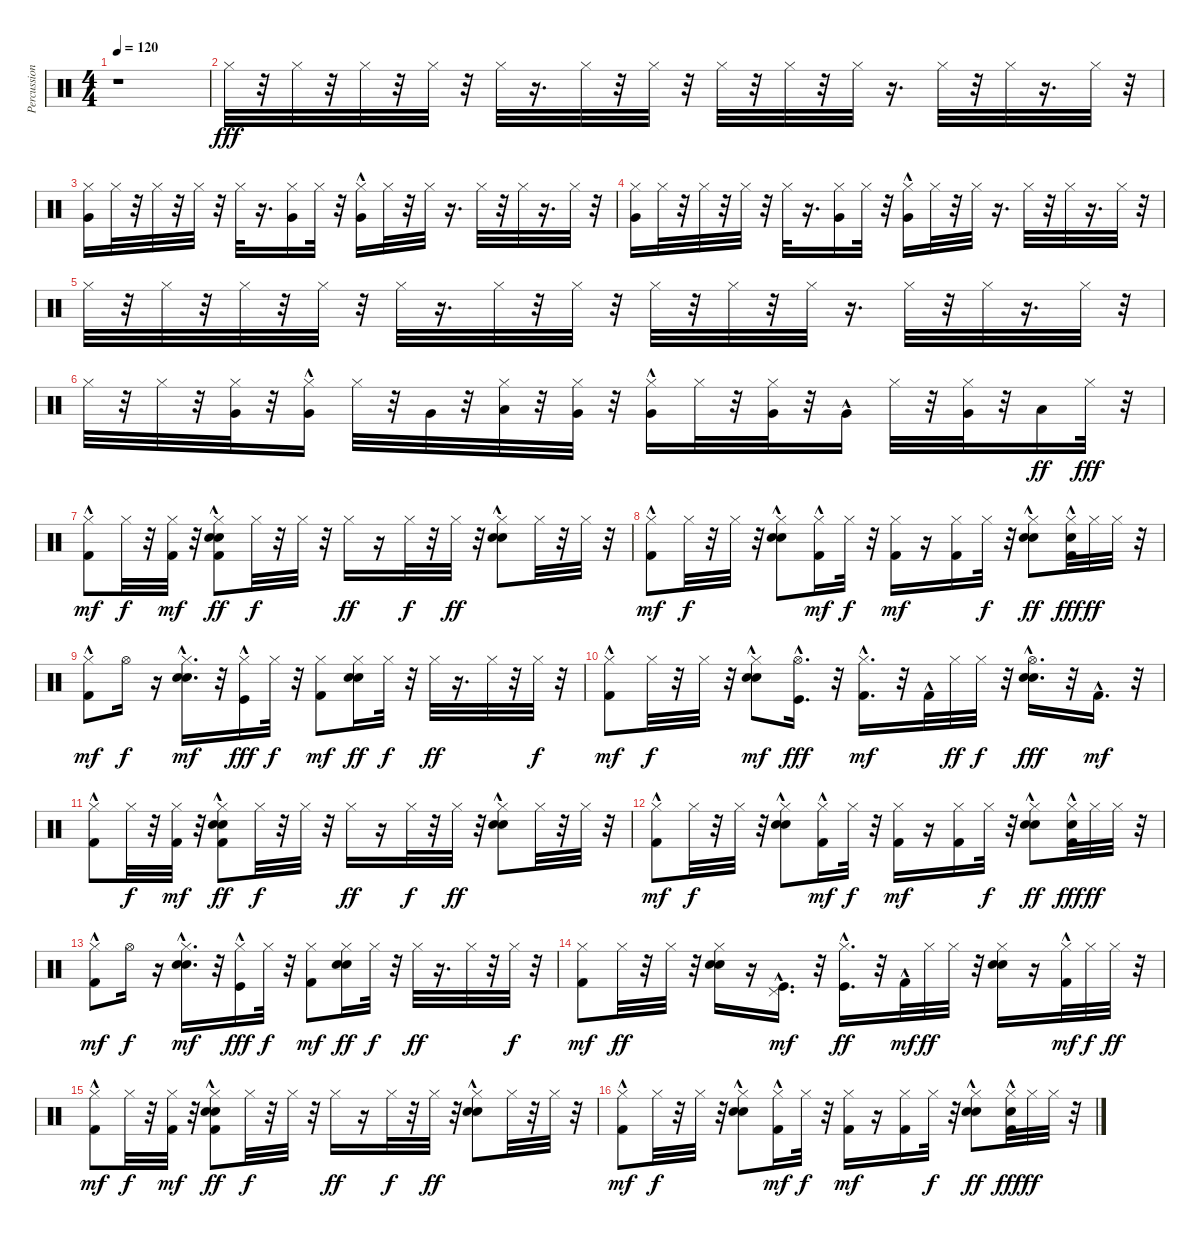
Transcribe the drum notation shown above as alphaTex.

\track ("Percussion" "Percussion") {instrument percussion}
\staff {score}
\articulation defaults
\ts (4 4)
\tempo 120
\clef neutral
\ks c
r.1{dy fff} |
"Hi-Hat (closed)".32 r.32 "Hi-Hat (closed)".32 r.32 "Hi-Hat (closed)".32 r.32 "Hi-Hat (closed)".32 r.32 "Hi-Hat (closed)".32 r.16{d} "Hi-Hat (closed)".32 r.32 "Hi-Hat (closed)".32 r.32 "Hi-Hat (closed)".32 r.32 "Hi-Hat (closed)".32 r.32 "Hi-Hat (closed)".32 r.16{d} "Hi-Hat (closed)".32 r.32 "Hi-Hat (closed)".32 r.16{d} "Hi-Hat (closed)".32 r.32 |
("Very Low Tom (hit)" "Hi-Hat (closed)").16 "Hi-Hat (closed)".32 r.32 "Hi-Hat (closed)".32 r.32 "Hi-Hat (closed)".32 r.32 "Hi-Hat (closed)".32 r.16{d} ("Hi-Hat (closed)" "Very Low Tom (hit)").16 "Hi-Hat (closed)".32 r.32 ("Very Low Tom (hit)"{hac} "Hi-Hat (closed)").16 "Hi-Hat (closed)".32 r.32 "Hi-Hat (closed)".32 r.16{d} "Hi-Hat (closed)".32 r.32 "Hi-Hat (closed)".32 r.16{d} "Hi-Hat (closed)".32 r.32 |
("Very Low Tom (hit)" "Hi-Hat (closed)").16 "Hi-Hat (closed)".32 r.32 "Hi-Hat (closed)".32 r.32 "Hi-Hat (closed)".32 r.32 "Hi-Hat (closed)".32 r.16{d} ("Hi-Hat (closed)" "Very Low Tom (hit)").16 "Hi-Hat (closed)".32 r.32 ("Very Low Tom (hit)"{hac} "Hi-Hat (closed)").16 "Hi-Hat (closed)".32 r.32 "Hi-Hat (closed)".32 r.16{d} "Hi-Hat (closed)".32 r.32 "Hi-Hat (closed)".32 r.16{d} "Hi-Hat (closed)".32 r.32 |
"Hi-Hat (closed)".32 r.32 "Hi-Hat (closed)".32 r.32 "Hi-Hat (closed)".32 r.32 "Hi-Hat (closed)".32 r.32 "Hi-Hat (closed)".32 r.16{d} "Hi-Hat (closed)".32 r.32 "Hi-Hat (closed)".32 r.32 "Hi-Hat (closed)".32 r.32 "Hi-Hat (closed)".32 r.32 "Hi-Hat (closed)".32 r.16{d} "Hi-Hat (closed)".32 r.32 "Hi-Hat (closed)".32 r.16{d} "Hi-Hat (closed)".32 r.32 |
"Hi-Hat (closed)".32 r.32 "Hi-Hat (closed)".32 r.32 ("Hi-Hat (closed)" "Very Low Tom (hit)").32 r.32 ("Very Low Tom (hit)"{hac} "Hi-Hat (closed)").16 "Hi-Hat (closed)".32 r.32 "Very Low Tom (hit)".32 r.32 ("Low Floor Tom (hit)" "Hi-Hat (closed)").32 r.32 ("Very Low Tom (hit)" "Hi-Hat (closed)").32 r.32 ("Very Low Tom (hit)"{hac} "Hi-Hat (closed)").16 "Hi-Hat (closed)".32 r.32 ("Very Low Tom (hit)" "Hi-Hat (closed)").32 r.32 "Very Low Tom (hit)"{hac}.16 "Hi-Hat (closed)".32 r.32 ("Very Low Tom (hit)" "Hi-Hat (closed)").32 r.32 "Low Floor Tom (hit)".16{dy ff} "Hi-Hat (closed)".32{dy fff} r.32 |
("Hi-Hat (closed)"{hac} "Kick (hit) 2").8{dy mf} "Hi-Hat (closed)".32{dy f} r.32 ("Kick (hit) 2" "Hi-Hat (closed)").32{dy mf} r.32 ("Kick (hit) 2"{hac} "Hi-Hat (closed)"{hac} "Hand Clap (hit)"{hac} "Snare (hit) 2"{hac}).8{dy ff} "Hi-Hat (closed)".32{dy f} r.32 "Hi-Hat (closed)".32 r.32 "Hi-Hat (closed)".16{dy ff} r.16 "Hi-Hat (closed)".32{dy f} r.32 "Hi-Hat (closed)".32{dy ff} r.32 ("Hi-Hat (closed)" "Hand Clap (hit)"{hac} "Snare (hit) 2"{hac}).8 "Hi-Hat (closed)".32 r.32 "Hi-Hat (closed)".32 r.32 |
("Hi-Hat (closed)"{hac} "Kick (hit) 2").8{dy mf} "Hi-Hat (closed)".32{dy f} r.32 "Hi-Hat (closed)".32 r.32 ("Hi-Hat (closed)" "Hand Clap (hit)"{hac} "Snare (hit) 2"{hac}).8 ("Kick (hit) 2"{hac} "Hi-Hat (closed)").16{dy mf} "Hi-Hat (closed)".32{dy f} r.32 ("Hi-Hat (closed)" "Kick (hit) 2").16{dy mf} r.16 ("Kick (hit) 2" "Hi-Hat (closed)").16 "Hi-Hat (closed)".32{dy f} r.32 ("Hi-Hat (closed)" "Hand Clap (hit)"{hac} "Snare (hit) 2"{hac}).8{dy ff} ("Hi-Hat (closed)" "Kick (hit) 2"{hac} "Electric Snare (hit)").32{dy fff} "Hi-Hat (closed)".32{dy ff} "Hi-Hat (closed)".32 r.32 |
("Kick (hit) 2" "Hi-Hat (closed)"{hac}).8{dy mf} "Hi-Hat (open)".16{dy f} r.16 ("Hand Clap (hit)"{hac} "Snare (hit) 2"{hac} "Hi-Hat (closed)").16{d dy mf} r.32 ("Kick (hit)"{hac} "Hi-Hat (closed)").16{dy fff} "Hi-Hat (closed)".32{dy f} r.32 ("Hi-Hat (closed)" "Kick (hit) 2").8{dy mf} ("Hand Clap (hit)" "Snare (hit) 2" "Hi-Hat (closed)").16{dy ff} "Hi-Hat (closed)".32{dy f} r.32 "Hi-Hat (closed)".32{dy ff} r.16{d} "Hi-Hat (closed)".32 r.32 "Hi-Hat (closed)".32{dy f} r.32 |
("Hi-Hat (closed)"{hac} "Kick (hit) 2").8{dy mf} "Hi-Hat (closed)".32{dy f} r.32 "Hi-Hat (closed)".32 r.32 ("Hi-Hat (closed)" "Hand Clap (hit)"{hac} "Snare (hit) 2"{hac}).8{dy mf} ("Hi-Hat (open)" "Kick (hit)"{hac}).16{d dy fff} r.32 ("Kick (hit) 2"{hac} "Hi-Hat (closed)").16{d dy mf} r.32 "Kick (hit) 2"{hac}.32 "Hi-Hat (closed)".32{dy ff} "Hi-Hat (closed)".32{dy f} r.32 ("Hand Clap (hit)"{hac} "Snare (hit) 2"{hac} "Hi-Hat (open)"{hac}).16{d dy fff} r.32 "Kick (hit) 2"{hac}.16{d dy mf} r.32 |
("Hi-Hat (closed)"{hac} "Kick (hit) 2").8 "Hi-Hat (closed)".32{dy f} r.32 ("Kick (hit) 2" "Hi-Hat (closed)").32{dy mf} r.32 ("Kick (hit) 2"{hac} "Hi-Hat (closed)"{hac} "Hand Clap (hit)"{hac} "Snare (hit) 2"{hac}).8{dy ff} "Hi-Hat (closed)".32{dy f} r.32 "Hi-Hat (closed)".32 r.32 "Hi-Hat (closed)".16{dy ff} r.16 "Hi-Hat (closed)".32{dy f} r.32 "Hi-Hat (closed)".32{dy ff} r.32 ("Hi-Hat (closed)" "Hand Clap (hit)"{hac} "Snare (hit) 2"{hac}).8 "Hi-Hat (closed)".32 r.32 "Hi-Hat (closed)".32 r.32 |
("Hi-Hat (closed)"{hac} "Kick (hit) 2").8{dy mf} "Hi-Hat (closed)".32{dy f} r.32 "Hi-Hat (closed)".32 r.32 ("Hi-Hat (closed)" "Hand Clap (hit)"{hac} "Snare (hit) 2"{hac}).8 ("Kick (hit) 2"{hac} "Hi-Hat (closed)").16{dy mf} "Hi-Hat (closed)".32{dy f} r.32 ("Hi-Hat (closed)" "Kick (hit) 2").16{dy mf} r.16 ("Kick (hit) 2" "Hi-Hat (closed)").16 "Hi-Hat (closed)".32{dy f} r.32 ("Hi-Hat (closed)" "Hand Clap (hit)"{hac} "Snare (hit) 2"{hac}).8{dy ff} ("Hi-Hat (closed)" "Kick (hit) 2"{hac} "Electric Snare (hit)").32{dy fff} "Hi-Hat (closed)".32{dy ff} "Hi-Hat (closed)".32 r.32 |
("Kick (hit) 2" "Hi-Hat (closed)"{hac}).8{dy mf} "Hi-Hat (open)".16{dy f} r.16 ("Hand Clap (hit)"{hac} "Snare (hit) 2"{hac} "Hi-Hat (closed)").16{d dy mf} r.32 ("Kick (hit)"{hac} "Hi-Hat (closed)").16{dy fff} "Hi-Hat (closed)".32{dy f} r.32 ("Hi-Hat (closed)" "Kick (hit) 2").8{dy mf} ("Hand Clap (hit)" "Snare (hit) 2" "Hi-Hat (closed)").16{dy ff} "Hi-Hat (closed)".32{dy f} r.32 "Hi-Hat (closed)".32{dy ff} r.16{d} "Hi-Hat (closed)".32 r.32 "Hi-Hat (closed)".32{dy f} r.32 |
("Kick (hit) 2" "Hi-Hat (closed)").8{dy mf} "Hi-Hat (closed)".32{dy ff} r.32 "Hi-Hat (closed)".32 r.32 ("Hand Clap (hit)" "Electric Snare (hit)" "Hi-Hat (closed)").16 r.16 ("Kick (hit)"{hac} "Pedal Hi-Hat (hit)").16{d dy mf} r.32 ("Kick (hit)"{hac} "Hi-Hat (closed)").16{d dy ff} r.32 "Kick (hit) 2"{hac}.32{dy mf} "Hi-Hat (closed)".32{dy ff} "Hi-Hat (closed)".32 r.32 ("Hand Clap (hit)" "Snare (hit) 2" "Hi-Hat (closed)").16 r.16 ("Hi-Hat (closed)" "Kick (hit) 2"{hac}).32{dy mf} "Hi-Hat (closed)".32{dy f} "Hi-Hat (closed)".32{dy ff} r.32 |
("Hi-Hat (closed)"{hac} "Kick (hit) 2").8{dy mf} "Hi-Hat (closed)".32{dy f} r.32 ("Kick (hit) 2" "Hi-Hat (closed)").32{dy mf} r.32 ("Kick (hit) 2"{hac} "Hi-Hat (closed)"{hac} "Hand Clap (hit)"{hac} "Snare (hit) 2"{hac}).8{dy ff} "Hi-Hat (closed)".32{dy f} r.32 "Hi-Hat (closed)".32 r.32 "Hi-Hat (closed)".16{dy ff} r.16 "Hi-Hat (closed)".32{dy f} r.32 "Hi-Hat (closed)".32{dy ff} r.32 ("Hi-Hat (closed)" "Hand Clap (hit)"{hac} "Snare (hit) 2"{hac}).8 "Hi-Hat (closed)".32 r.32 "Hi-Hat (closed)".32 r.32 |
("Hi-Hat (closed)"{hac} "Kick (hit) 2").8{dy mf} "Hi-Hat (closed)".32{dy f} r.32 "Hi-Hat (closed)".32 r.32 ("Hi-Hat (closed)" "Hand Clap (hit)"{hac} "Snare (hit) 2"{hac}).8 ("Kick (hit) 2"{hac} "Hi-Hat (closed)").16{dy mf} "Hi-Hat (closed)".32{dy f} r.32 ("Hi-Hat (closed)" "Kick (hit) 2").16{dy mf} r.16 ("Kick (hit) 2" "Hi-Hat (closed)").16 "Hi-Hat (closed)".32{dy f} r.32 ("Hi-Hat (closed)" "Hand Clap (hit)"{hac} "Snare (hit) 2"{hac}).8{dy ff} ("Hi-Hat (closed)" "Kick (hit) 2"{hac} "Electric Snare (hit)").32{dy fff} "Hi-Hat (closed)".32{dy ff} "Hi-Hat (closed)".32 r.32
